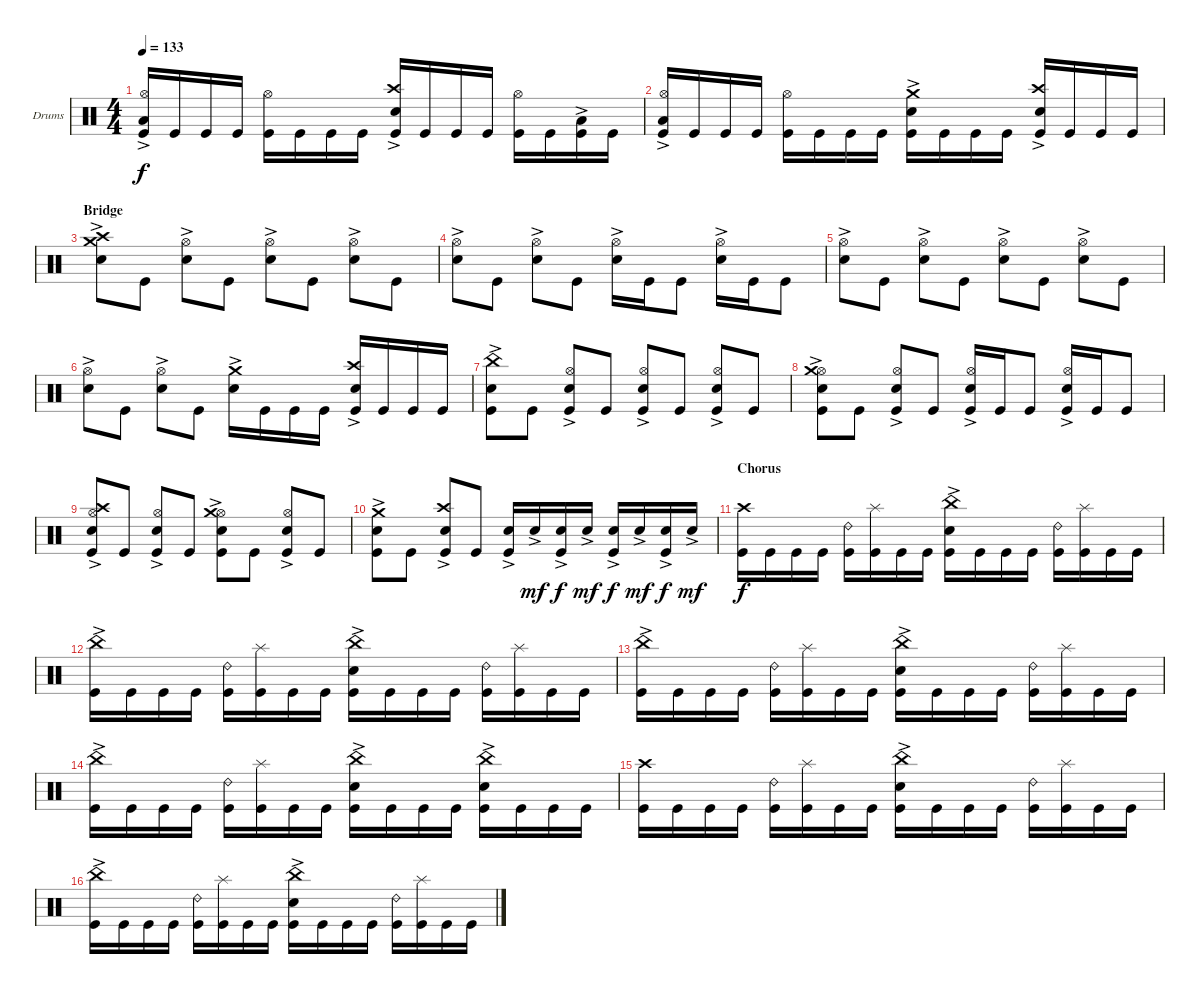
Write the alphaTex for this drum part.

\bracketExtendMode groupsimilarinstruments
\firstSystemTrackNameOrientation horizontal
\otherSystemsTrackNameOrientation horizontal
\track ("Drumkit" "Drums") {instrument percussion}
\staff {score}
\articulation defaults
\ts (4 4)
\tempo 133
\clef neutral
\ks c
("Kick (hit)" "Hi-Hat (open)" "Low Tom (hit)"{ac}).16{dy f} "Kick (hit)".16 "Kick (hit)".16 "Kick (hit)".16 ("Kick (hit)" "Hi-Hat (open)").16 "Kick (hit)".16 "Kick (hit)".16 "Kick (hit)".16 ("Kick (hit)" "Crash high (hit)" "Snare (hit) 2"{ac}).16 "Kick (hit)".16 "Kick (hit)".16 "Kick (hit)".16 ("Kick (hit)" "Hi-Hat (open)").16 "Kick (hit)".16 ("Kick (hit)" "Low Tom (hit)"{ac}).16 "Kick (hit)".16 |
("Kick (hit)" "Low Tom (hit)"{ac} "Hi-Hat (open)").16 "Kick (hit)".16 "Kick (hit)".16 "Kick (hit)".16 ("Kick (hit)" "Hi-Hat (open)").16 "Kick (hit)".16 "Kick (hit)".16 "Kick (hit)".16 ("Kick (hit)" "Snare (hit) 2"{ac} "Crash medium (hit)"{ac}).16 "Kick (hit)".16 "Kick (hit)".16 "Kick (hit)".16 ("Kick (hit)" "Snare (hit) 2"{ac} "Crash high (hit)").16 "Kick (hit)".16 "Kick (hit)".16 "Kick (hit)".16 |
\section ("" "Bridge")
("Snare (hit) 2"{ac} "Crash medium (hit)" "Crash high (hit)").8 "Kick (hit)".8 ("Snare (hit) 2"{ac} "Hi-Hat (open)").8 "Kick (hit)".8 ("Snare (hit) 2"{ac} "Hi-Hat (open)").8 "Kick (hit)".8 ("Snare (hit) 2"{ac} "Hi-Hat (open)").8 "Kick (hit)".8 |
("Snare (hit) 2"{ac} "Hi-Hat (open)").8 "Kick (hit)".8 ("Snare (hit) 2"{ac} "Hi-Hat (open)").8 "Kick (hit)".8 ("Snare (hit) 2"{ac} "Hi-Hat (open)").16 "Kick (hit)".16 "Kick (hit)".8 ("Snare (hit) 2"{ac} "Hi-Hat (open)").16 "Kick (hit)".16 "Kick (hit)".8 |
("Snare (hit) 2"{ac} "Hi-Hat (open)").8 "Kick (hit)".8 ("Snare (hit) 2"{ac} "Hi-Hat (open)").8 "Kick (hit)".8 ("Snare (hit) 2"{ac} "Hi-Hat (open)").8 "Kick (hit)".8 ("Snare (hit) 2"{ac} "Hi-Hat (open)").8 "Kick (hit)".8 |
("Snare (hit) 2"{ac} "Hi-Hat (open)").8 "Kick (hit)".8 ("Snare (hit) 2"{ac} "Hi-Hat (open)").8 "Kick (hit)".8 ("Snare (hit) 2"{ac} "Crash medium (hit)").16 "Kick (hit)".16 "Kick (hit)".16 "Kick (hit)".16 ("Snare (hit) 2"{ac} "Crash high (hit)" "Kick (hit)").16 "Kick (hit)".16 "Kick (hit)".16 "Kick (hit)".16 |
("China (hit)"{ac} "Snare (hit) 2"{ac} "Kick (hit)").8 "Kick (hit)".8 ("Snare (hit) 2"{ac} "Hi-Hat (open)" "Kick (hit)").8 "Kick (hit)".8 ("Snare (hit) 2"{ac} "Hi-Hat (open)" "Kick (hit)").8 "Kick (hit)".8 ("Snare (hit) 2"{ac} "Hi-Hat (open)" "Kick (hit)").8 "Kick (hit)".8 |
("Snare (hit) 2"{ac} "Hi-Hat (open)" "Crash medium (hit)"{ac} "Kick (hit)").8 "Kick (hit)".8 ("Snare (hit) 2"{ac} "Hi-Hat (open)" "Kick (hit)").8 "Kick (hit)".8 ("Snare (hit) 2"{ac} "Hi-Hat (open)" "Kick (hit)").16 "Kick (hit)".16 "Kick (hit)".8 ("Snare (hit) 2"{ac} "Hi-Hat (open)" "Kick (hit)").16 "Kick (hit)".16 "Kick (hit)".8 |
("Snare (hit) 2"{ac} "Hi-Hat (open)" "Crash high (hit)" "Kick (hit)").8 "Kick (hit)".8 ("Snare (hit) 2"{ac} "Hi-Hat (open)" "Kick (hit)").8 "Kick (hit)".8 ("Snare (hit) 2"{ac} "Hi-Hat (open)" "Kick (hit)" "Crash medium (hit)").8 "Kick (hit)".8 ("Snare (hit) 2"{ac} "Hi-Hat (open)" "Kick (hit)").8 "Kick (hit)".8 |
("Kick (hit)" "Snare (hit) 2"{ac} "Crash medium (hit)").8 "Kick (hit)".8 ("Kick (hit)" "Snare (hit) 2"{ac} "Crash high (hit)").8 "Kick (hit)".8 ("Kick (hit)" "Snare (hit) 2"{ac}).16 "Snare (hit) 2"{ac}.16{dy mf} ("Snare (hit) 2"{ac} "Kick (hit)").16{dy f} "Snare (hit) 2"{ac}.16{dy mf} ("Snare (hit) 2"{ac} "Kick (hit)").16{dy f} "Snare (hit) 2"{ac}.16{dy mf} ("Snare (hit) 2"{ac} "Kick (hit)").16{dy f} "Snare (hit) 2"{ac}.16{dy mf} |
\section ("" "Chorus")
("Kick (hit)" "Crash high (hit)").16{dy f} "Kick (hit)".16 "Kick (hit)".16 "Kick (hit)".16 ("Kick (hit)" "Ride (bell) 2").16 ("Kick (hit)" "Splash (hit)").16 "Kick (hit)".16 "Kick (hit)".16 ("Kick (hit)" "Snare (hit) 2"{ac} "China (hit)"{ac}).16 "Kick (hit)".16 "Kick (hit)".16 "Kick (hit)".16 ("Kick (hit)" "Ride (bell) 2").16 ("Kick (hit)" "Splash (hit)").16 "Kick (hit)".16 "Kick (hit)".16 |
("Kick (hit)" "China (hit)"{ac}).16 "Kick (hit)".16 "Kick (hit)".16 "Kick (hit)".16 ("Kick (hit)" "Ride (bell) 2").16 ("Kick (hit)" "Splash (hit)").16 "Kick (hit)".16 "Kick (hit)".16 ("Kick (hit)" "Snare (hit) 2"{ac} "China (hit)"{ac}).16 "Kick (hit)".16 "Kick (hit)".16 "Kick (hit)".16 ("Kick (hit)" "Ride (bell) 2").16 ("Kick (hit)" "Splash (hit)").16 "Kick (hit)".16 "Kick (hit)".16 |
("Kick (hit)" "China (hit)"{ac}).16 "Kick (hit)".16 "Kick (hit)".16 "Kick (hit)".16 ("Kick (hit)" "Ride (bell) 2").16 ("Kick (hit)" "Splash (hit)").16 "Kick (hit)".16 "Kick (hit)".16 ("Kick (hit)" "Snare (hit) 2"{ac} "China (hit)"{ac}).16 "Kick (hit)".16 "Kick (hit)".16 "Kick (hit)".16 ("Kick (hit)" "Ride (bell) 2").16 ("Kick (hit)" "Splash (hit)").16 "Kick (hit)".16 "Kick (hit)".16 |
("Kick (hit)" "China (hit)"{ac}).16 "Kick (hit)".16 "Kick (hit)".16 "Kick (hit)".16 ("Kick (hit)" "Ride (bell) 2").16 ("Kick (hit)" "Splash (hit)").16 "Kick (hit)".16 "Kick (hit)".16 ("Kick (hit)" "Snare (hit) 2"{ac} "China (hit)"{ac}).16 "Kick (hit)".16 "Kick (hit)".16 "Kick (hit)".16 ("Kick (hit)" "Snare (hit) 2"{ac} "China (hit)"{ac}).16 "Kick (hit)".16 "Kick (hit)".16 "Kick (hit)".16 |
("Kick (hit)" "Crash high (hit)").16 "Kick (hit)".16 "Kick (hit)".16 "Kick (hit)".16 ("Kick (hit)" "Ride (bell) 2").16 ("Kick (hit)" "Splash (hit)").16 "Kick (hit)".16 "Kick (hit)".16 ("Kick (hit)" "Snare (hit) 2"{ac} "China (hit)"{ac}).16 "Kick (hit)".16 "Kick (hit)".16 "Kick (hit)".16 ("Kick (hit)" "Ride (bell) 2").16 ("Kick (hit)" "Splash (hit)").16 "Kick (hit)".16 "Kick (hit)".16 |
("Kick (hit)" "China (hit)"{ac}).16 "Kick (hit)".16 "Kick (hit)".16 "Kick (hit)".16 ("Kick (hit)" "Ride (bell) 2").16 ("Kick (hit)" "Splash (hit)").16 "Kick (hit)".16 "Kick (hit)".16 ("Kick (hit)" "Snare (hit) 2"{ac} "China (hit)"{ac}).16 "Kick (hit)".16 "Kick (hit)".16 "Kick (hit)".16 ("Kick (hit)" "Ride (bell) 2").16 ("Kick (hit)" "Splash (hit)").16 "Kick (hit)".16 "Kick (hit)".16
